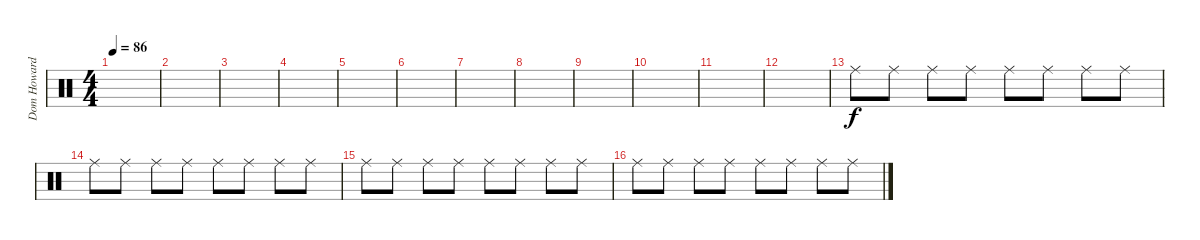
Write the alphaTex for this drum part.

\track ("Dom Howard" "Dom Howard") {instrument percussion}
\staff {score}
\articulation defaults
\ts (4 4)
\tempo 86
\clef neutral
\ks c
|
|
|
|
|
|
|
|
|
|
|
|
"Ride (middle)".8 "Ride (middle)".8 "Ride (middle)".8 "Ride (middle)".8 "Ride (middle)".8 "Ride (middle)".8 "Ride (middle)".8 "Ride (middle)".8 |
"Ride (middle)".8 "Ride (middle)".8 "Ride (middle)".8 "Ride (middle)".8 "Ride (middle)".8 "Ride (middle)".8 "Ride (middle)".8 "Ride (middle)".8 |
"Ride (middle)".8 "Ride (middle)".8 "Ride (middle)".8 "Ride (middle)".8 "Ride (middle)".8 "Ride (middle)".8 "Ride (middle)".8 "Ride (middle)".8 |
"Ride (middle)".8 "Ride (middle)".8 "Ride (middle)".8 "Ride (middle)".8 "Ride (middle)".8 "Ride (middle)".8 "Ride (middle)".8 "Ride (middle)".8
